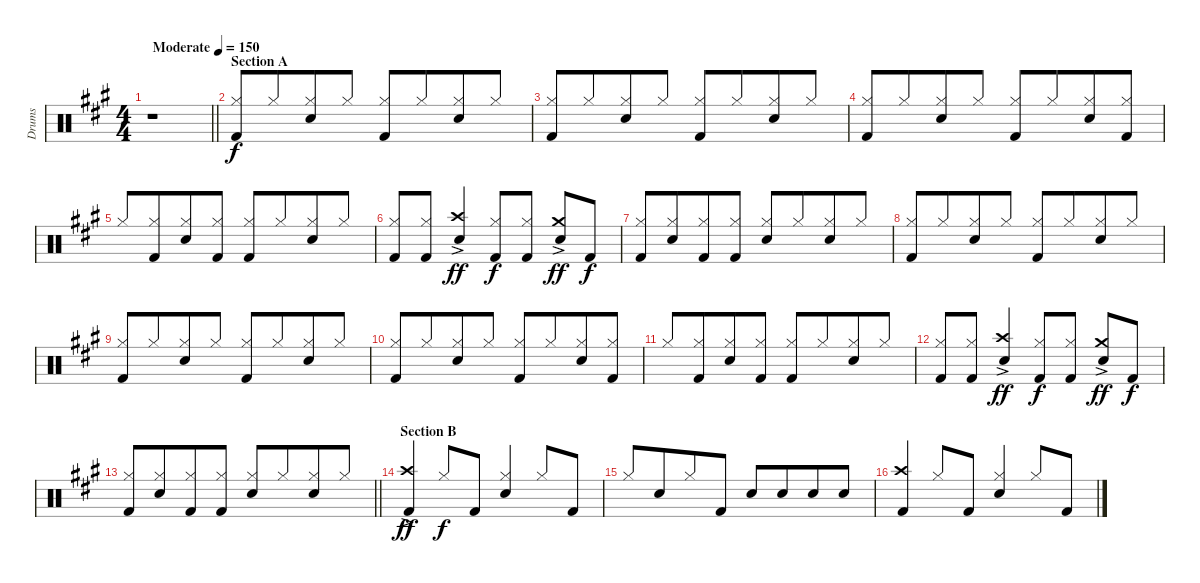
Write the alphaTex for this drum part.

\track ("Drums" "Drums") {instrument percussion}
\staff {score}
\articulation defaults
\ts (4 4)
\tempo (150 "Moderate")
\clef neutral
\barLineRight lightlight
\ks a
r.1{dy f} |
\section ("" "Section A")
("Hi-Hat (closed)" "Kick (hit) 2").8{beam Up} "Hi-Hat (closed)".8{beam Up beam merge} ("Hi-Hat (closed)" "Snare (hit) 2").8{beam Up} "Hi-Hat (closed)".8{beam Up} ("Hi-Hat (closed)" "Kick (hit) 2").8{beam Up} "Hi-Hat (closed)".8{beam Up beam merge} ("Hi-Hat (closed)" "Snare (hit) 2").8{beam Up} "Hi-Hat (closed)".8{beam Up} |
("Hi-Hat (closed)" "Kick (hit) 2").8{beam Up} "Hi-Hat (closed)".8{beam Up beam merge} ("Hi-Hat (closed)" "Snare (hit) 2").8{beam Up} "Hi-Hat (closed)".8{beam Up} ("Hi-Hat (closed)" "Kick (hit) 2").8{beam Up} "Hi-Hat (closed)".8{beam Up beam merge} ("Hi-Hat (closed)" "Snare (hit) 2").8{beam Up} "Hi-Hat (closed)".8{beam Up} |
("Hi-Hat (closed)" "Kick (hit) 2").8{beam Up} "Hi-Hat (closed)".8{beam Up beam merge} ("Hi-Hat (closed)" "Snare (hit) 2").8{beam Up} "Hi-Hat (closed)".8{beam Up} ("Hi-Hat (closed)" "Kick (hit) 2").8{beam Up} "Hi-Hat (closed)".8{beam Up beam merge} ("Hi-Hat (closed)" "Snare (hit) 2").8{beam Up} ("Hi-Hat (closed)" "Kick (hit) 2").8{beam Up} |
"Hi-Hat (closed)".8{beam Up} ("Hi-Hat (closed)" "Kick (hit) 2").8{beam Up beam merge} ("Hi-Hat (closed)" "Snare (hit) 2").8{beam Up} ("Hi-Hat (closed)" "Kick (hit) 2").8{beam Up} ("Hi-Hat (closed)" "Kick (hit) 2").8{beam Up} "Hi-Hat (closed)".8{beam Up beam merge} ("Hi-Hat (closed)" "Snare (hit) 2").8{beam Up} "Hi-Hat (closed)".8{beam Up} |
("Hi-Hat (closed)" "Kick (hit) 2").8{beam Up} ("Hi-Hat (closed)" "Kick (hit) 2").8{beam Up} ("Crash high (hit)"{ac} "Snare (hit) 2").4{dy ff beam Up} ("Hi-Hat (closed)" "Kick (hit) 2").8{dy f beam Up} ("Hi-Hat (closed)" "Kick (hit) 2").8{beam Up} ("Crash medium (hit)"{ac} "Snare (hit) 2").8{dy ff beam Up} "Kick (hit) 2".8{dy f beam Up} |
("Hi-Hat (closed)" "Kick (hit) 2").8{beam Up} ("Hi-Hat (closed)" "Snare (hit) 2").8{beam Up beam merge} ("Hi-Hat (closed)" "Kick (hit) 2").8{beam Up} ("Hi-Hat (closed)" "Kick (hit) 2").8{beam Up} ("Hi-Hat (closed)" "Snare (hit) 2").8{beam Up} "Hi-Hat (closed)".8{beam Up beam merge} ("Hi-Hat (closed)" "Snare (hit) 2").8{beam Up} "Hi-Hat (closed)".8{beam Up} |
("Hi-Hat (closed)" "Kick (hit) 2").8{beam Up} "Hi-Hat (closed)".8{beam Up beam merge} ("Hi-Hat (closed)" "Snare (hit) 2").8{beam Up} "Hi-Hat (closed)".8{beam Up} ("Hi-Hat (closed)" "Kick (hit) 2").8{beam Up} "Hi-Hat (closed)".8{beam Up beam merge} ("Hi-Hat (closed)" "Snare (hit) 2").8{beam Up} "Hi-Hat (closed)".8{beam Up} |
("Hi-Hat (closed)" "Kick (hit) 2").8{beam Up} "Hi-Hat (closed)".8{beam Up beam merge} ("Hi-Hat (closed)" "Snare (hit) 2").8{beam Up} "Hi-Hat (closed)".8{beam Up} ("Hi-Hat (closed)" "Kick (hit) 2").8{beam Up} "Hi-Hat (closed)".8{beam Up beam merge} ("Hi-Hat (closed)" "Snare (hit) 2").8{beam Up} "Hi-Hat (closed)".8{beam Up} |
("Hi-Hat (closed)" "Kick (hit) 2").8{beam Up} "Hi-Hat (closed)".8{beam Up beam merge} ("Hi-Hat (closed)" "Snare (hit) 2").8{beam Up} "Hi-Hat (closed)".8{beam Up} ("Hi-Hat (closed)" "Kick (hit) 2").8{beam Up} "Hi-Hat (closed)".8{beam Up beam merge} ("Hi-Hat (closed)" "Snare (hit) 2").8{beam Up} ("Hi-Hat (closed)" "Kick (hit) 2").8{beam Up} |
"Hi-Hat (closed)".8{beam Up} ("Hi-Hat (closed)" "Kick (hit) 2").8{beam Up beam merge} ("Hi-Hat (closed)" "Snare (hit) 2").8{beam Up} ("Hi-Hat (closed)" "Kick (hit) 2").8{beam Up} ("Hi-Hat (closed)" "Kick (hit) 2").8{beam Up} "Hi-Hat (closed)".8{beam Up beam merge} ("Hi-Hat (closed)" "Snare (hit) 2").8{beam Up} "Hi-Hat (closed)".8{beam Up} |
("Hi-Hat (closed)" "Kick (hit) 2").8{beam Up} ("Hi-Hat (closed)" "Kick (hit) 2").8{beam Up} ("Crash high (hit)"{ac} "Snare (hit) 2").4{dy ff beam Up} ("Hi-Hat (closed)" "Kick (hit) 2").8{dy f beam Up} ("Hi-Hat (closed)" "Kick (hit) 2").8{beam Up} ("Crash medium (hit)"{ac} "Snare (hit) 2").8{dy ff beam Up} "Kick (hit) 2".8{dy f beam Up} |
\barLineRight lightlight
("Hi-Hat (closed)" "Kick (hit) 2").8{beam Up} ("Hi-Hat (closed)" "Snare (hit) 2").8{beam Up beam merge} ("Hi-Hat (closed)" "Kick (hit) 2").8{beam Up} ("Hi-Hat (closed)" "Kick (hit) 2").8{beam Up} ("Hi-Hat (closed)" "Snare (hit) 2").8{beam Up} "Hi-Hat (closed)".8{beam Up beam merge} ("Hi-Hat (closed)" "Snare (hit) 2").8{beam Up} "Hi-Hat (closed)".8{beam Up} |
\section ("" "Section B")
("Crash high (hit)"{ac} "Kick (hit) 2").4{dy ff beam Up} "Hi-Hat (closed)".8{dy f beam Up} "Kick (hit) 2".8{beam Up} ("Hi-Hat (closed)" "Snare (hit) 2").4{beam Up} "Hi-Hat (closed)".8{beam Up} "Kick (hit) 2".8{beam Up} |
"Hi-Hat (closed)".8{beam Up} "Snare (hit) 2".8{beam Up beam merge} "Hi-Hat (closed)".8{beam Up} "Kick (hit) 2".8{beam Up} "Snare (hit) 2".8{beam Up} "Snare (hit) 2".8{beam Up beam merge} "Snare (hit) 2".8{beam Up} "Snare (hit) 2".8{beam Up} |
("Crash high (hit)" "Kick (hit) 2").4{beam Up} "Hi-Hat (closed)".8{beam Up} "Kick (hit) 2".8{beam Up} ("Hi-Hat (closed)" "Snare (hit) 2").4{beam Up} "Hi-Hat (closed)".8{beam Up} "Kick (hit) 2".8{beam Up}
